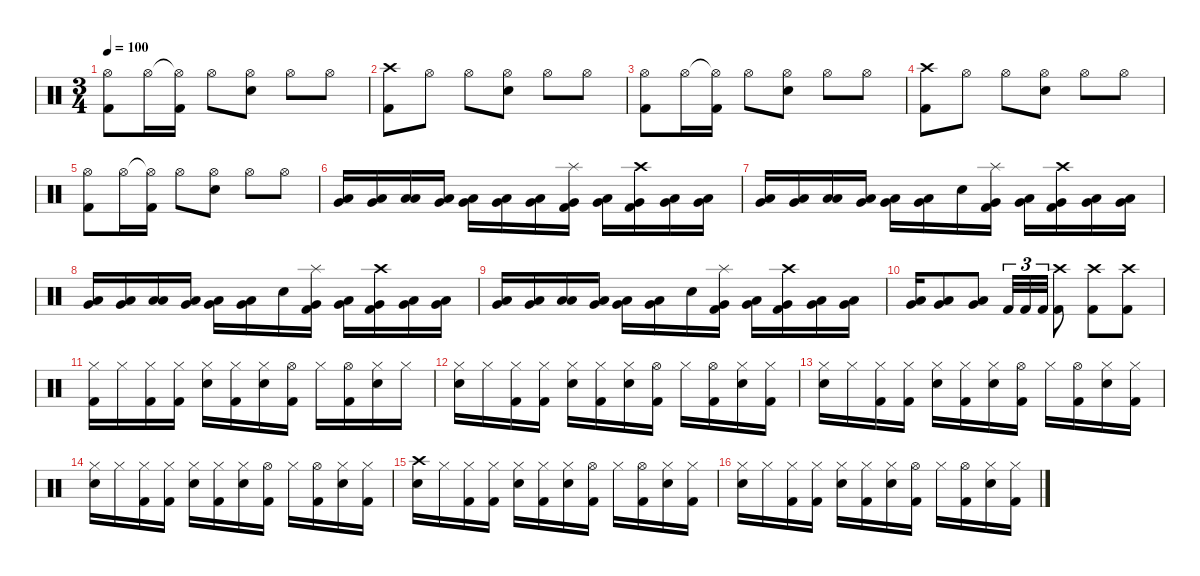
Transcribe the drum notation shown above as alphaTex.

\defaultSystemsLayout 4
\hideDynamics
\bracketExtendMode nobrackets
\singleTrackTrackNamePolicy hidden
\multiTrackTrackNamePolicy hidden
\firstSystemTrackNameMode fullname
\firstSystemTrackNameOrientation horizontal
\otherSystemsTrackNameOrientation horizontal
\track ("Drums" "drm.") {instrument percussion}
\staff {score}
\articulation defaults
\ts (3 4)
\tempo 100
\clef neutral
\ks c
("Hi-Hat (open)" "Kick (hit) 2").8{dy f beam Down} "Hi-Hat (open)".16{beam Down} ("Hi-Hat (open)"{t} "Kick (hit) 2").16{beam Down} "Hi-Hat (open)".8{beam Down} ("Hi-Hat (open)" "Snare (hit) 2").8{beam Down} "Hi-Hat (open)".8{beam Down} "Hi-Hat (open)".8{beam Down} |
("Crash high (hit)" "Kick (hit) 2").8{beam Down} "Hi-Hat (open)".8{beam Down} "Hi-Hat (open)".8{beam Down} ("Hi-Hat (open)" "Snare (hit) 2").8{beam Down} "Hi-Hat (open)".8{beam Down} "Hi-Hat (open)".8{beam Down} |
("Hi-Hat (open)" "Kick (hit) 2").8{beam Down} "Hi-Hat (open)".16{beam Down} ("Hi-Hat (open)"{t} "Kick (hit) 2").16{beam Down} "Hi-Hat (open)".8{beam Down} ("Hi-Hat (open)" "Snare (hit) 2").8{beam Down} "Hi-Hat (open)".8{beam Down} "Hi-Hat (open)".8{beam Down} |
("Crash high (hit)" "Kick (hit) 2").8{beam Down} "Hi-Hat (open)".8{beam Down} "Hi-Hat (open)".8{beam Down} ("Hi-Hat (open)" "Snare (hit) 2").8{beam Down} "Hi-Hat (open)".8{beam Down} "Hi-Hat (open)".8{beam Down} |
("Hi-Hat (open)" "Kick (hit) 2").8{beam Down} "Hi-Hat (open)".16{beam Down} ("Hi-Hat (open)"{t} "Kick (hit) 2").16{beam Down} "Hi-Hat (open)".8{beam Down} ("Hi-Hat (open)" "Snare (hit) 2").8{beam Down} "Hi-Hat (open)".8{beam Down} "Hi-Hat (open)".8{beam Down} |
("Low Tom (hit)" "Very Low Tom (hit)").16{dy mf beam Up} ("Low Tom (hit)" "Very Low Tom (hit)").16{dy f beam Up} ("Low Tom (hit)" "Low Tom (hit)").16{dy mf beam Up} ("Low Tom (hit)" "Very Low Tom (hit)").16{dy f beam Up} ("Low Tom (hit)" "Very Low Tom (hit)").16{dy mp beam Down} ("Low Tom (hit)" "Very Low Tom (hit)").16{dy f beam Down} ("Low Tom (hit)" "Very Low Tom (hit)").16{dy mf beam Down} ("Splash (hit)" "Very Low Tom (hit)" "Kick (hit) 2").16{dy ff beam Down} ("Low Tom (hit)" "Very Low Tom (hit)").16{dy mp beam Down} ("Crash high (hit)" "Very Low Tom (hit)" "Kick (hit) 2").16{dy f beam Down} ("Low Tom (hit)" "Very Low Tom (hit)").16{dy mf beam Down} ("Low Tom (hit)" "Very Low Tom (hit)").16{dy f beam Down} |
("Low Tom (hit)" "Very Low Tom (hit)").16{dy mf beam Up} ("Low Tom (hit)" "Very Low Tom (hit)").16{dy f beam Up} ("Low Tom (hit)" "Low Tom (hit)").16{dy mf beam Up} ("Low Tom (hit)" "Very Low Tom (hit)").16{dy f beam Up} ("Low Tom (hit)" "Very Low Tom (hit)").16{dy mp beam Down} ("Low Tom (hit)" "Very Low Tom (hit)").16{dy f beam Down} "Snare (hit) 2".16{beam Down} ("Splash (hit)" "Very Low Tom (hit)" "Kick (hit) 2").16{dy ff beam Down} ("Low Tom (hit)" "Very Low Tom (hit)").16{dy mp beam Down} ("Crash high (hit)" "Very Low Tom (hit)" "Kick (hit) 2").16{dy f beam Down} ("Low Tom (hit)" "Very Low Tom (hit)").16{dy mf beam Down} ("Low Tom (hit)" "Very Low Tom (hit)").16{dy f beam Down} |
("Low Tom (hit)" "Very Low Tom (hit)").16{dy mf beam Up} ("Low Tom (hit)" "Very Low Tom (hit)").16{dy f beam Up} ("Low Tom (hit)" "Low Tom (hit)").16{dy mf beam Up} ("Low Tom (hit)" "Very Low Tom (hit)").16{dy f beam Up} ("Low Tom (hit)" "Very Low Tom (hit)").16{dy mp beam Down} ("Low Tom (hit)" "Very Low Tom (hit)").16{dy f beam Down} "Snare (hit) 2".16{beam Down} ("Splash (hit)" "Very Low Tom (hit)" "Kick (hit) 2").16{dy ff beam Down} ("Low Tom (hit)" "Very Low Tom (hit)").16{dy mp beam Down} ("Crash high (hit)" "Very Low Tom (hit)" "Kick (hit) 2").16{dy f beam Down} ("Low Tom (hit)" "Very Low Tom (hit)").16{dy mf beam Down} ("Low Tom (hit)" "Very Low Tom (hit)").16{dy f beam Down} |
("Low Tom (hit)" "Very Low Tom (hit)").16{dy mf beam Up} ("Low Tom (hit)" "Very Low Tom (hit)").16{dy f beam Up} ("Low Tom (hit)" "Low Tom (hit)").16{dy mf beam Up} ("Low Tom (hit)" "Very Low Tom (hit)").16{dy f beam Up} ("Low Tom (hit)" "Very Low Tom (hit)").16{dy mp beam Down} ("Low Tom (hit)" "Very Low Tom (hit)").16{dy f beam Down} "Snare (hit) 2".16{beam Down} ("Splash (hit)" "Very Low Tom (hit)" "Kick (hit) 2").16{dy ff beam Down} ("Low Tom (hit)" "Very Low Tom (hit)").16{dy mp beam Down} ("Crash high (hit)" "Very Low Tom (hit)" "Kick (hit) 2").16{dy f beam Down} ("Low Tom (hit)" "Very Low Tom (hit)").16{dy mf beam Down} ("Low Tom (hit)" "Very Low Tom (hit)").16{dy f beam Down} |
("Very Low Tom (hit)" "Low Floor Tom (hit)").16{dy ff beam Up} ("Very Low Tom (hit)" "Low Floor Tom (hit)").8{beam Up} ("Very Low Tom (hit)" "Low Floor Tom (hit)").8{beam Up} "Kick (hit) 2".32{tu (3 2) dy f beam Up} "Kick (hit) 2".32{tu (3 2) beam Up} "Kick (hit) 2".32{tu (3 2) beam Up} ("Crash high (hit)" "Kick (hit) 2").8{beam Down} ("Crash high (hit)" "Kick (hit) 2").8{beam Down} ("Crash high (hit)" "Kick (hit) 2").8{beam Down} |
("Hi-Hat (closed)" "Kick (hit) 2").16{beam Down} "Hi-Hat (closed)".16{beam Down} ("Hi-Hat (closed)" "Kick (hit) 2").16{beam Down} ("Hi-Hat (closed)" "Kick (hit) 2").16{beam Down} ("Hi-Hat (closed)" "Snare (hit) 2").16{beam Down} ("Hi-Hat (closed)" "Kick (hit) 2").16{beam Down} ("Hi-Hat (closed)" "Snare (hit) 2").16{beam Down} ("Hi-Hat (open)" "Kick (hit) 2").16{dy ff beam Down} "Hi-Hat (closed)".16{dy f beam Down} ("Hi-Hat (open)" "Kick (hit) 2").16{dy ff beam Down} ("Hi-Hat (closed)" "Snare (hit) 2").16{dy f beam Down} "Hi-Hat (closed)".16{beam Down} |
("Hi-Hat (closed)" "Snare (hit) 2").16{beam Down} "Hi-Hat (closed)".16{beam Down} ("Hi-Hat (closed)" "Kick (hit) 2").16{beam Down} ("Hi-Hat (closed)" "Kick (hit) 2").16{beam Down} ("Hi-Hat (closed)" "Snare (hit) 2").16{beam Down} ("Hi-Hat (closed)" "Kick (hit) 2").16{beam Down} ("Hi-Hat (closed)" "Snare (hit) 2").16{beam Down} ("Hi-Hat (open)" "Kick (hit) 2").16{dy ff beam Down} "Hi-Hat (closed)".16{dy f beam Down} ("Hi-Hat (open)" "Kick (hit) 2").16{dy ff beam Down} ("Hi-Hat (closed)" "Snare (hit) 2").16{dy f beam Down} ("Hi-Hat (closed)" "Kick (hit) 2").16{beam Down} |
("Hi-Hat (closed)" "Snare (hit) 2").16{beam Down} "Hi-Hat (closed)".16{beam Down} ("Hi-Hat (closed)" "Kick (hit) 2").16{beam Down} ("Hi-Hat (closed)" "Kick (hit) 2").16{beam Down} ("Hi-Hat (closed)" "Snare (hit) 2").16{beam Down} ("Hi-Hat (closed)" "Kick (hit) 2").16{beam Down} ("Hi-Hat (closed)" "Snare (hit) 2").16{beam Down} ("Hi-Hat (open)" "Kick (hit) 2").16{dy ff beam Down} "Hi-Hat (closed)".16{dy f beam Down} ("Hi-Hat (open)" "Kick (hit) 2").16{dy ff beam Down} ("Hi-Hat (closed)" "Snare (hit) 2").16{dy f beam Down} ("Hi-Hat (closed)" "Kick (hit) 2").16{beam Down} |
("Hi-Hat (closed)" "Snare (hit) 2").16{beam Down} "Hi-Hat (closed)".16{beam Down} ("Hi-Hat (closed)" "Kick (hit) 2").16{beam Down} ("Hi-Hat (closed)" "Kick (hit) 2").16{beam Down} ("Hi-Hat (closed)" "Snare (hit) 2").16{beam Down} ("Hi-Hat (closed)" "Kick (hit) 2").16{beam Down} ("Hi-Hat (closed)" "Snare (hit) 2").16{beam Down} ("Hi-Hat (open)" "Kick (hit) 2").16{dy ff beam Down} "Hi-Hat (closed)".16{dy f beam Down} ("Hi-Hat (open)" "Kick (hit) 2").16{dy ff beam Down} ("Hi-Hat (closed)" "Snare (hit) 2").16{dy f beam Down} ("Hi-Hat (closed)" "Kick (hit) 2").16{beam Down} |
("Crash high (hit)" "Snare (hit) 2").16{beam Down} "Hi-Hat (closed)".16{beam Down} ("Hi-Hat (closed)" "Kick (hit) 2").16{beam Down} ("Hi-Hat (closed)" "Kick (hit) 2").16{beam Down} ("Hi-Hat (closed)" "Snare (hit) 2").16{beam Down} ("Hi-Hat (closed)" "Kick (hit) 2").16{beam Down} ("Hi-Hat (closed)" "Snare (hit) 2").16{beam Down} ("Hi-Hat (open)" "Kick (hit) 2").16{dy ff beam Down} "Hi-Hat (closed)".16{dy f beam Down} ("Hi-Hat (open)" "Kick (hit) 2").16{dy ff beam Down} ("Hi-Hat (closed)" "Snare (hit) 2").16{dy f beam Down} ("Hi-Hat (closed)" "Kick (hit) 2").16{beam Down} |
("Hi-Hat (closed)" "Snare (hit) 2").16{beam Down} "Hi-Hat (closed)".16{beam Down} ("Hi-Hat (closed)" "Kick (hit) 2").16{beam Down} ("Hi-Hat (closed)" "Kick (hit) 2").16{beam Down} ("Hi-Hat (closed)" "Snare (hit) 2").16{beam Down} ("Hi-Hat (closed)" "Kick (hit) 2").16{beam Down} ("Hi-Hat (closed)" "Snare (hit) 2").16{beam Down} ("Hi-Hat (open)" "Kick (hit) 2").16{dy ff beam Down} "Hi-Hat (closed)".16{dy f beam Down} ("Hi-Hat (open)" "Kick (hit) 2").16{dy ff beam Down} ("Hi-Hat (closed)" "Snare (hit) 2").16{dy f beam Down} ("Hi-Hat (closed)" "Kick (hit) 2").16{beam Down}
